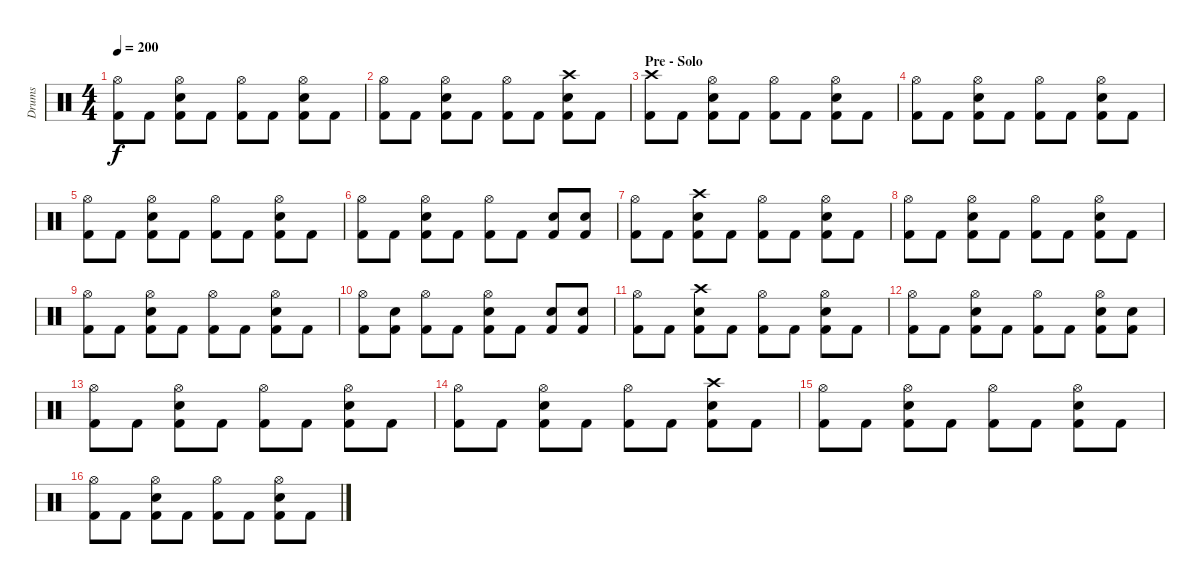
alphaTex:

\track ("Drums" "Drums") {instrument percussion}
\staff {score}
\articulation defaults
\ts (4 4)
\tempo 200
\clef neutral
\ks c
("Hi-Hat (open)" "Kick (hit) 2").8{dy f} "Kick (hit) 2".8 ("Hi-Hat (open)" "Snare (hit) 2" "Kick (hit) 2").8 "Kick (hit) 2".8 ("Hi-Hat (open)" "Kick (hit) 2").8 "Kick (hit) 2".8 ("Hi-Hat (open)" "Snare (hit) 2" "Kick (hit) 2").8 "Kick (hit) 2".8 |
("Hi-Hat (open)" "Kick (hit) 2").8 "Kick (hit) 2".8 ("Hi-Hat (open)" "Snare (hit) 2" "Kick (hit) 2").8 "Kick (hit) 2".8 ("Hi-Hat (open)" "Kick (hit) 2").8 "Kick (hit) 2".8 ("Crash high (hit)" "Snare (hit) 2" "Kick (hit) 2").8 "Kick (hit) 2".8 |
\section ("" "Pre - Solo")
("Crash high (hit)" "Kick (hit) 2").8 "Kick (hit) 2".8 ("Hi-Hat (open)" "Snare (hit) 2" "Kick (hit) 2").8 "Kick (hit) 2".8 ("Hi-Hat (open)" "Kick (hit) 2").8 "Kick (hit) 2".8 ("Hi-Hat (open)" "Snare (hit) 2" "Kick (hit) 2").8 "Kick (hit) 2".8 |
("Hi-Hat (open)" "Kick (hit) 2").8 "Kick (hit) 2".8 ("Hi-Hat (open)" "Snare (hit) 2" "Kick (hit) 2").8 "Kick (hit) 2".8 ("Hi-Hat (open)" "Kick (hit) 2").8 "Kick (hit) 2".8 ("Hi-Hat (open)" "Snare (hit) 2" "Kick (hit) 2").8 "Kick (hit) 2".8 |
("Hi-Hat (open)" "Kick (hit) 2").8 "Kick (hit) 2".8 ("Hi-Hat (open)" "Snare (hit) 2" "Kick (hit) 2").8 "Kick (hit) 2".8 ("Hi-Hat (open)" "Kick (hit) 2").8 "Kick (hit) 2".8 ("Hi-Hat (open)" "Snare (hit) 2" "Kick (hit) 2").8 "Kick (hit) 2".8 |
("Hi-Hat (open)" "Kick (hit) 2").8 "Kick (hit) 2".8 ("Hi-Hat (open)" "Snare (hit) 2" "Kick (hit) 2").8 "Kick (hit) 2".8 ("Hi-Hat (open)" "Kick (hit) 2").8 "Kick (hit) 2".8 ("Snare (hit) 2" "Kick (hit) 2").8 ("Snare (hit) 2" "Kick (hit) 2").8 |
("Hi-Hat (open)" "Kick (hit) 2").8 "Kick (hit) 2".8 ("Crash high (hit)" "Snare (hit) 2" "Kick (hit) 2").8 "Kick (hit) 2".8 ("Hi-Hat (open)" "Kick (hit) 2").8 "Kick (hit) 2".8 ("Hi-Hat (open)" "Snare (hit) 2" "Kick (hit) 2").8 "Kick (hit) 2".8 |
("Hi-Hat (open)" "Kick (hit) 2").8 "Kick (hit) 2".8 ("Hi-Hat (open)" "Snare (hit) 2" "Kick (hit) 2").8 "Kick (hit) 2".8 ("Hi-Hat (open)" "Kick (hit) 2").8 "Kick (hit) 2".8 ("Hi-Hat (open)" "Snare (hit) 2" "Kick (hit) 2").8 "Kick (hit) 2".8 |
("Hi-Hat (open)" "Kick (hit) 2").8 "Kick (hit) 2".8 ("Hi-Hat (open)" "Snare (hit) 2" "Kick (hit) 2").8 "Kick (hit) 2".8 ("Hi-Hat (open)" "Kick (hit) 2").8 "Kick (hit) 2".8 ("Hi-Hat (open)" "Snare (hit) 2" "Kick (hit) 2").8 "Kick (hit) 2".8 |
("Hi-Hat (open)" "Kick (hit) 2").8 ("Snare (hit) 2" "Kick (hit) 2").8 ("Hi-Hat (open)" "Kick (hit) 2").8 "Kick (hit) 2".8 ("Hi-Hat (open)" "Snare (hit) 2" "Kick (hit) 2").8 "Kick (hit) 2".8 ("Snare (hit) 2" "Kick (hit) 2").8 ("Snare (hit) 2" "Kick (hit) 2").8 |
("Hi-Hat (open)" "Kick (hit) 2").8 "Kick (hit) 2".8 ("Crash high (hit)" "Snare (hit) 2" "Kick (hit) 2").8 "Kick (hit) 2".8 ("Hi-Hat (open)" "Kick (hit) 2").8 "Kick (hit) 2".8 ("Hi-Hat (open)" "Snare (hit) 2" "Kick (hit) 2").8 "Kick (hit) 2".8 |
("Hi-Hat (open)" "Kick (hit) 2").8 "Kick (hit) 2".8 ("Hi-Hat (open)" "Snare (hit) 2" "Kick (hit) 2").8 "Kick (hit) 2".8 ("Hi-Hat (open)" "Kick (hit) 2").8 "Kick (hit) 2".8 ("Hi-Hat (open)" "Snare (hit) 2" "Kick (hit) 2").8 ("Snare (hit) 2" "Kick (hit) 2").8 |
("Hi-Hat (open)" "Kick (hit) 2").8 "Kick (hit) 2".8 ("Hi-Hat (open)" "Snare (hit) 2" "Kick (hit) 2").8 "Kick (hit) 2".8 ("Hi-Hat (open)" "Kick (hit) 2").8 "Kick (hit) 2".8 ("Hi-Hat (open)" "Snare (hit) 2" "Kick (hit) 2").8 "Kick (hit) 2".8 |
("Hi-Hat (open)" "Kick (hit) 2").8 "Kick (hit) 2".8 ("Hi-Hat (open)" "Snare (hit) 2" "Kick (hit) 2").8 "Kick (hit) 2".8 ("Hi-Hat (open)" "Kick (hit) 2").8 "Kick (hit) 2".8 ("Crash high (hit)" "Snare (hit) 2" "Kick (hit) 2").8 "Kick (hit) 2".8 |
("Hi-Hat (open)" "Kick (hit) 2").8 "Kick (hit) 2".8 ("Hi-Hat (open)" "Snare (hit) 2" "Kick (hit) 2").8 "Kick (hit) 2".8 ("Hi-Hat (open)" "Kick (hit) 2").8 "Kick (hit) 2".8 ("Hi-Hat (open)" "Snare (hit) 2" "Kick (hit) 2").8 "Kick (hit) 2".8 |
("Hi-Hat (open)" "Kick (hit) 2").8 "Kick (hit) 2".8 ("Hi-Hat (open)" "Snare (hit) 2" "Kick (hit) 2").8 "Kick (hit) 2".8 ("Hi-Hat (open)" "Kick (hit) 2").8 "Kick (hit) 2".8 ("Hi-Hat (open)" "Snare (hit) 2" "Kick (hit) 2").8 "Kick (hit) 2".8
